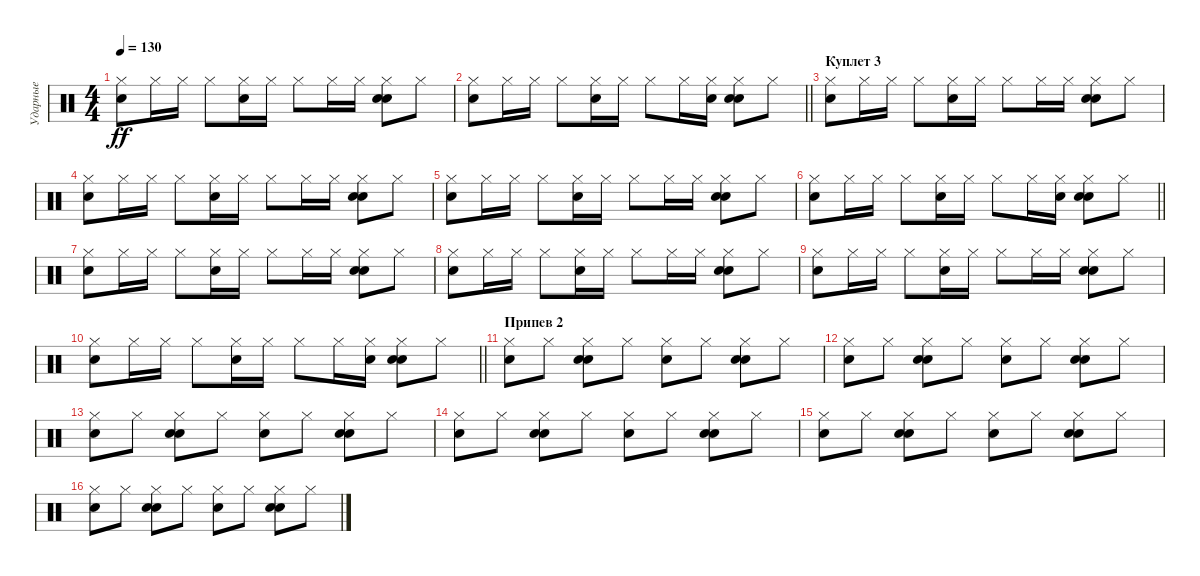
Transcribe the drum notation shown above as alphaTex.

\track ("Ударные" "Ударные") {instrument percussion}
\staff {score}
\articulation defaults
\ts (4 4)
\tempo 130
\clef neutral
\ks c
("Hi-Hat (closed)" "Snare (hit) 2").8{dy ff} "Hi-Hat (closed)".16 "Hi-Hat (closed)".16 "Hi-Hat (closed)".8 ("Hi-Hat (closed)" "Snare (hit) 2").16 "Hi-Hat (closed)".16 "Hi-Hat (closed)".8 "Hi-Hat (closed)".16 "Hi-Hat (closed)".16 ("Hi-Hat (closed)" "Snare (hit) 2" "Electric Snare (hit)").8 "Hi-Hat (closed)".8 |
\barLineRight lightlight
("Hi-Hat (closed)" "Snare (hit) 2").8 "Hi-Hat (closed)".16 "Hi-Hat (closed)".16 "Hi-Hat (closed)".8 ("Hi-Hat (closed)" "Snare (hit) 2").16 "Hi-Hat (closed)".16 "Hi-Hat (closed)".8 "Hi-Hat (closed)".16 ("Hi-Hat (closed)" "Electric Snare (hit)").16 ("Hi-Hat (closed)" "Snare (hit) 2" "Electric Snare (hit)").8 "Hi-Hat (closed)".8 |
\section ("" "Куплет 3")
("Hi-Hat (closed)" "Snare (hit) 2").8 "Hi-Hat (closed)".16 "Hi-Hat (closed)".16 "Hi-Hat (closed)".8 ("Hi-Hat (closed)" "Snare (hit) 2").16 "Hi-Hat (closed)".16 "Hi-Hat (closed)".8 "Hi-Hat (closed)".16 "Hi-Hat (closed)".16 ("Hi-Hat (closed)" "Snare (hit) 2" "Electric Snare (hit)").8 "Hi-Hat (closed)".8 |
("Hi-Hat (closed)" "Snare (hit) 2").8 "Hi-Hat (closed)".16 "Hi-Hat (closed)".16 "Hi-Hat (closed)".8 ("Hi-Hat (closed)" "Snare (hit) 2").16 "Hi-Hat (closed)".16 "Hi-Hat (closed)".8 "Hi-Hat (closed)".16 "Hi-Hat (closed)".16 ("Hi-Hat (closed)" "Snare (hit) 2" "Electric Snare (hit)").8 "Hi-Hat (closed)".8 |
("Hi-Hat (closed)" "Snare (hit) 2").8 "Hi-Hat (closed)".16 "Hi-Hat (closed)".16 "Hi-Hat (closed)".8 ("Hi-Hat (closed)" "Snare (hit) 2").16 "Hi-Hat (closed)".16 "Hi-Hat (closed)".8 "Hi-Hat (closed)".16 "Hi-Hat (closed)".16 ("Hi-Hat (closed)" "Snare (hit) 2" "Electric Snare (hit)").8 "Hi-Hat (closed)".8 |
\barLineRight lightlight
("Hi-Hat (closed)" "Snare (hit) 2").8 "Hi-Hat (closed)".16 "Hi-Hat (closed)".16 "Hi-Hat (closed)".8 ("Hi-Hat (closed)" "Snare (hit) 2").16 "Hi-Hat (closed)".16 "Hi-Hat (closed)".8 "Hi-Hat (closed)".16 ("Hi-Hat (closed)" "Electric Snare (hit)").16 ("Hi-Hat (closed)" "Snare (hit) 2" "Electric Snare (hit)").8 "Hi-Hat (closed)".8 |
("Hi-Hat (closed)" "Snare (hit) 2").8 "Hi-Hat (closed)".16 "Hi-Hat (closed)".16 "Hi-Hat (closed)".8 ("Hi-Hat (closed)" "Snare (hit) 2").16 "Hi-Hat (closed)".16 "Hi-Hat (closed)".8 "Hi-Hat (closed)".16 "Hi-Hat (closed)".16 ("Hi-Hat (closed)" "Snare (hit) 2" "Electric Snare (hit)").8 "Hi-Hat (closed)".8 |
("Hi-Hat (closed)" "Snare (hit) 2").8 "Hi-Hat (closed)".16 "Hi-Hat (closed)".16 "Hi-Hat (closed)".8 ("Hi-Hat (closed)" "Snare (hit) 2").16 "Hi-Hat (closed)".16 "Hi-Hat (closed)".8 "Hi-Hat (closed)".16 "Hi-Hat (closed)".16 ("Hi-Hat (closed)" "Snare (hit) 2" "Electric Snare (hit)").8 "Hi-Hat (closed)".8 |
("Hi-Hat (closed)" "Snare (hit) 2").8 "Hi-Hat (closed)".16 "Hi-Hat (closed)".16 "Hi-Hat (closed)".8 ("Hi-Hat (closed)" "Snare (hit) 2").16 "Hi-Hat (closed)".16 "Hi-Hat (closed)".8 "Hi-Hat (closed)".16 "Hi-Hat (closed)".16 ("Hi-Hat (closed)" "Snare (hit) 2" "Electric Snare (hit)").8 "Hi-Hat (closed)".8 |
\barLineRight lightlight
("Hi-Hat (closed)" "Snare (hit) 2").8 "Hi-Hat (closed)".16 "Hi-Hat (closed)".16 "Hi-Hat (closed)".8 ("Hi-Hat (closed)" "Snare (hit) 2").16 "Hi-Hat (closed)".16 "Hi-Hat (closed)".8 "Hi-Hat (closed)".16 ("Hi-Hat (closed)" "Electric Snare (hit)").16 ("Hi-Hat (closed)" "Snare (hit) 2" "Electric Snare (hit)").8 "Hi-Hat (closed)".8 |
\section ("" "Припев 2")
("Hi-Hat (closed)" "Snare (hit) 2").8 "Hi-Hat (closed)".8 ("Hi-Hat (closed)" "Snare (hit) 2" "Electric Snare (hit)").8 "Hi-Hat (closed)".8 ("Hi-Hat (closed)" "Snare (hit) 2").8 "Hi-Hat (closed)".8 ("Hi-Hat (closed)" "Snare (hit) 2" "Electric Snare (hit)").8 "Hi-Hat (closed)".8 |
("Hi-Hat (closed)" "Snare (hit) 2").8 "Hi-Hat (closed)".8 ("Hi-Hat (closed)" "Snare (hit) 2" "Electric Snare (hit)").8 "Hi-Hat (closed)".8 ("Hi-Hat (closed)" "Snare (hit) 2").8 "Hi-Hat (closed)".8 ("Hi-Hat (closed)" "Snare (hit) 2" "Electric Snare (hit)").8 "Hi-Hat (closed)".8 |
("Hi-Hat (closed)" "Snare (hit) 2").8 "Hi-Hat (closed)".8 ("Hi-Hat (closed)" "Snare (hit) 2" "Electric Snare (hit)").8 "Hi-Hat (closed)".8 ("Hi-Hat (closed)" "Snare (hit) 2").8 "Hi-Hat (closed)".8 ("Hi-Hat (closed)" "Snare (hit) 2" "Electric Snare (hit)").8 "Hi-Hat (closed)".8 |
("Hi-Hat (closed)" "Snare (hit) 2").8 "Hi-Hat (closed)".8 ("Hi-Hat (closed)" "Snare (hit) 2" "Electric Snare (hit)").8 "Hi-Hat (closed)".8 ("Hi-Hat (closed)" "Snare (hit) 2").8 "Hi-Hat (closed)".8 ("Hi-Hat (closed)" "Snare (hit) 2" "Electric Snare (hit)").8 "Hi-Hat (closed)".8 |
("Hi-Hat (closed)" "Snare (hit) 2").8 "Hi-Hat (closed)".8 ("Hi-Hat (closed)" "Snare (hit) 2" "Electric Snare (hit)").8 "Hi-Hat (closed)".8 ("Hi-Hat (closed)" "Snare (hit) 2").8 "Hi-Hat (closed)".8 ("Hi-Hat (closed)" "Snare (hit) 2" "Electric Snare (hit)").8 "Hi-Hat (closed)".8 |
("Hi-Hat (closed)" "Snare (hit) 2").8 "Hi-Hat (closed)".8 ("Hi-Hat (closed)" "Snare (hit) 2" "Electric Snare (hit)").8 "Hi-Hat (closed)".8 ("Hi-Hat (closed)" "Snare (hit) 2").8 "Hi-Hat (closed)".8 ("Hi-Hat (closed)" "Snare (hit) 2" "Electric Snare (hit)").8 "Hi-Hat (closed)".8
